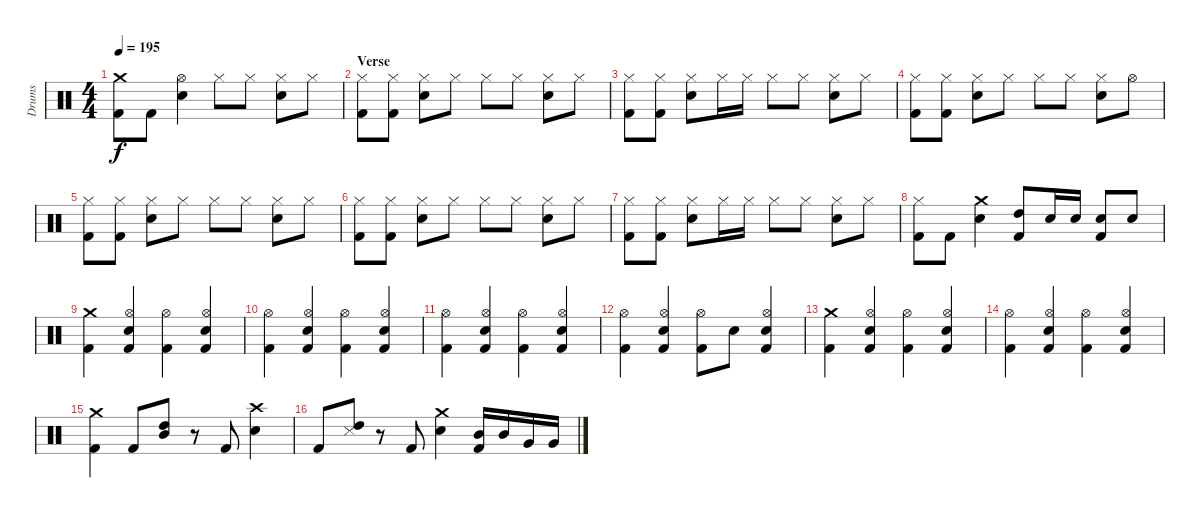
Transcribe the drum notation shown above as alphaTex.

\track ("Drums" "Drums") {instrument percussion}
\staff {score}
\articulation defaults
\ts (4 4)
\tempo 195
\clef neutral
\ks c
("Crash medium (hit)" "Kick (hit) 2").8{dy f} "Kick (hit) 2".8 ("Hi-Hat (open)" "Snare (hit) 2").4 "Hi-Hat (closed)".8 "Hi-Hat (closed)".8 ("Hi-Hat (closed)" "Snare (hit) 2").8 "Hi-Hat (closed)".8 |
\section ("" "Verse")
("Hi-Hat (closed)" "Kick (hit) 2").8 ("Hi-Hat (closed)" "Kick (hit) 2").8 ("Hi-Hat (closed)" "Snare (hit) 2").8 "Hi-Hat (closed)".8 "Hi-Hat (closed)".8 "Hi-Hat (closed)".8 ("Hi-Hat (closed)" "Snare (hit) 2").8 "Hi-Hat (closed)".8 |
("Hi-Hat (closed)" "Kick (hit) 2").8 ("Hi-Hat (closed)" "Kick (hit) 2").8 ("Hi-Hat (closed)" "Snare (hit) 2").8 "Hi-Hat (closed)".16 "Hi-Hat (closed)".16 "Hi-Hat (closed)".8 "Hi-Hat (closed)".8 ("Hi-Hat (closed)" "Snare (hit) 2").8 "Hi-Hat (closed)".8 |
("Hi-Hat (closed)" "Kick (hit) 2").8 ("Hi-Hat (closed)" "Kick (hit) 2").8 ("Hi-Hat (closed)" "Snare (hit) 2").8 "Hi-Hat (closed)".8 "Hi-Hat (closed)".8 "Hi-Hat (closed)".8 ("Hi-Hat (closed)" "Snare (hit) 2").8 "Hi-Hat (open)".8 |
("Hi-Hat (closed)" "Kick (hit) 2").8 ("Hi-Hat (closed)" "Kick (hit) 2").8 ("Hi-Hat (closed)" "Snare (hit) 2").8 "Hi-Hat (closed)".8 "Hi-Hat (closed)".8 "Hi-Hat (closed)".8 ("Hi-Hat (closed)" "Snare (hit) 2").8 "Hi-Hat (closed)".8 |
("Hi-Hat (closed)" "Kick (hit) 2").8 ("Hi-Hat (closed)" "Kick (hit) 2").8 ("Hi-Hat (closed)" "Snare (hit) 2").8 "Hi-Hat (closed)".8 "Hi-Hat (closed)".8 "Hi-Hat (closed)".8 ("Hi-Hat (closed)" "Snare (hit) 2").8 "Hi-Hat (closed)".8 |
("Hi-Hat (closed)" "Kick (hit) 2").8 ("Hi-Hat (closed)" "Kick (hit) 2").8 ("Hi-Hat (closed)" "Snare (hit) 2").8 "Hi-Hat (closed)".16 "Hi-Hat (closed)".16 "Hi-Hat (closed)".8 "Hi-Hat (closed)".8 ("Hi-Hat (closed)" "Snare (hit) 2").8 "Hi-Hat (closed)".8 |
("Hi-Hat (closed)" "Kick (hit) 2").8 "Kick (hit) 2".8 ("Crash medium (hit)" "Snare (hit) 2").4 ("High Tom (hit)" "Kick (hit) 2").8 "Snare (hit) 2".16 "Snare (hit) 2".16 ("Snare (hit) 2" "Kick (hit) 2").8 "Snare (hit) 2".8 |
("Crash medium (hit)" "Kick (hit) 2").4 ("Hi-Hat (open)" "Snare (hit) 2" "Kick (hit) 2").4 ("Hi-Hat (open)" "Kick (hit) 2").4 ("Hi-Hat (open)" "Snare (hit) 2" "Kick (hit) 2").4 |
("Hi-Hat (open)" "Kick (hit) 2").4 ("Hi-Hat (open)" "Snare (hit) 2" "Kick (hit) 2").4 ("Hi-Hat (open)" "Kick (hit) 2").4 ("Hi-Hat (open)" "Snare (hit) 2" "Kick (hit) 2").4 |
("Hi-Hat (open)" "Kick (hit) 2").4 ("Hi-Hat (open)" "Snare (hit) 2" "Kick (hit) 2").4 ("Hi-Hat (open)" "Kick (hit) 2").4 ("Hi-Hat (open)" "Snare (hit) 2" "Kick (hit) 2").4 |
("Hi-Hat (open)" "Kick (hit) 2").4 ("Hi-Hat (open)" "Snare (hit) 2" "Kick (hit) 2").4 ("Hi-Hat (open)" "Kick (hit) 2").8 "Snare (hit) 2".8 ("Hi-Hat (open)" "Snare (hit) 2" "Kick (hit) 2").4 |
("Crash medium (hit)" "Kick (hit) 2").4 ("Hi-Hat (open)" "Snare (hit) 2" "Kick (hit) 2").4 ("Hi-Hat (open)" "Kick (hit) 2").4 ("Hi-Hat (open)" "Snare (hit) 2" "Kick (hit) 2").4 |
("Hi-Hat (open)" "Kick (hit) 2").4 ("Hi-Hat (open)" "Snare (hit) 2" "Kick (hit) 2").4 ("Hi-Hat (open)" "Kick (hit) 2").4 ("Hi-Hat (open)" "Snare (hit) 2" "Kick (hit) 2").4 |
("Crash medium (hit)" "Kick (hit) 2").4 "Kick (hit) 2".8 ("High Tom (hit)" "Mid Tom (hit)").8 r.8 "Kick (hit) 2".8 ("Crash high (hit)" "Snare (hit) 2").4 |
"Kick (hit) 2".8 ("High Tom (hit)" "Snare (side stick) 3").8 r.8 "Kick (hit) 2".8 ("Crash medium (hit)" "Snare (hit) 2").4 ("Mid Tom (hit)" "Kick (hit) 2").16 "Mid Tom (hit)".16 "Very Low Tom (hit)".16 "Very Low Tom (hit)".16
